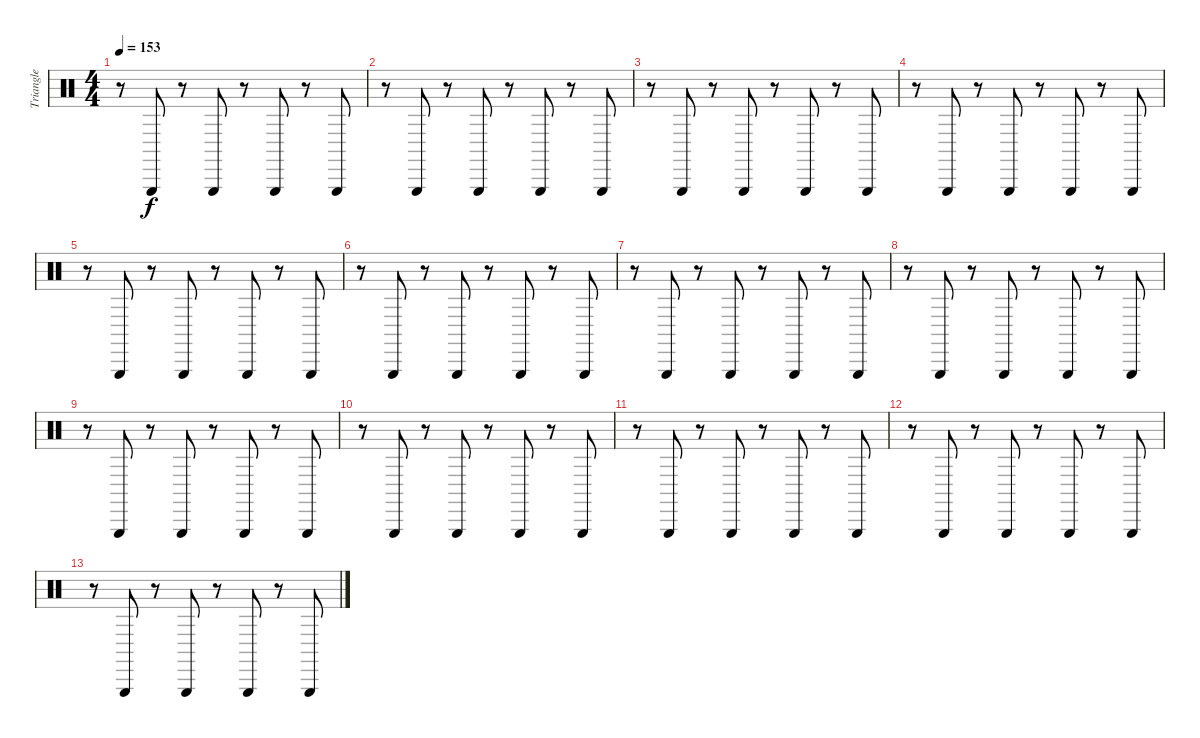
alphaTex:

\track ("Triangle" "Triangle") {instrument percussion}
\staff {score}
\articulation defaults
\ts (4 4)
\tempo 153
\clef neutral
\ks c
r.8{dy f} "Triangle (hit)".8 r.8 "Triangle (hit)".8 r.8 "Triangle (hit)".8 r.8 "Triangle (hit)".8 |
r.8 "Triangle (hit)".8 r.8 "Triangle (hit)".8 r.8 "Triangle (hit)".8 r.8 "Triangle (hit)".8 |
r.8 "Triangle (hit)".8 r.8 "Triangle (hit)".8 r.8 "Triangle (hit)".8 r.8 "Triangle (hit)".8 |
r.8 "Triangle (hit)".8 r.8 "Triangle (hit)".8 r.8 "Triangle (hit)".8 r.8 "Triangle (hit)".8 |
r.8 "Triangle (hit)".8 r.8 "Triangle (hit)".8 r.8 "Triangle (hit)".8 r.8 "Triangle (hit)".8 |
r.8 "Triangle (hit)".8 r.8 "Triangle (hit)".8 r.8 "Triangle (hit)".8 r.8 "Triangle (hit)".8 |
r.8 "Triangle (hit)".8 r.8 "Triangle (hit)".8 r.8 "Triangle (hit)".8 r.8 "Triangle (hit)".8 |
r.8 "Triangle (hit)".8 r.8 "Triangle (hit)".8 r.8 "Triangle (hit)".8 r.8 "Triangle (hit)".8 |
r.8 "Triangle (hit)".8 r.8 "Triangle (hit)".8 r.8 "Triangle (hit)".8 r.8 "Triangle (hit)".8 |
r.8 "Triangle (hit)".8 r.8 "Triangle (hit)".8 r.8 "Triangle (hit)".8 r.8 "Triangle (hit)".8 |
r.8 "Triangle (hit)".8 r.8 "Triangle (hit)".8 r.8 "Triangle (hit)".8 r.8 "Triangle (hit)".8 |
r.8 "Triangle (hit)".8 r.8 "Triangle (hit)".8 r.8 "Triangle (hit)".8 r.8 "Triangle (hit)".8 |
r.8 "Triangle (hit)".8 r.8 "Triangle (hit)".8 r.8 "Triangle (hit)".8 r.8 "Triangle (hit)".8
